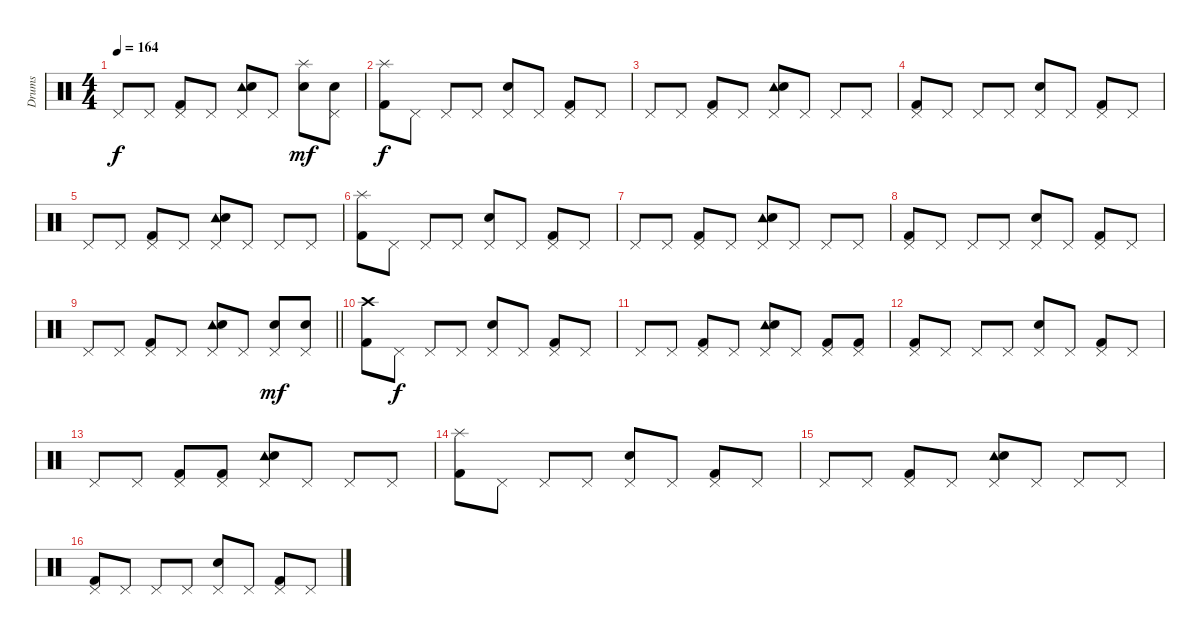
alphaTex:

\track ("Drums" "Drums") {instrument percussion}
\staff {score}
\articulation defaults
\ts (4 4)
\tempo 164
\clef neutral
\ks c "Pedal Hi-Hat (hit)".8{dy f} "Pedal Hi-Hat (hit)".8
("Pedal Hi-Hat (hit)" "Kick (hit) 2").8 "Pedal Hi-Hat (hit)".8 ("Tambourine (hit)" "Pedal Hi-Hat (hit)" "Snare (hit) 2").8 "Pedal Hi-Hat (hit)".8 ("Splash (hit)" "Snare (hit) 2").8{dy mf} ("Pedal Hi-Hat (hit)" "Snare (hit) 2").8 |
("Splash (hit)" "Kick (hit) 2").8{dy f} "Pedal Hi-Hat (hit)".8 "Pedal Hi-Hat (hit)".8 "Pedal Hi-Hat (hit)".8 ("Pedal Hi-Hat (hit)" "Snare (hit) 2").8 "Pedal Hi-Hat (hit)".8 ("Pedal Hi-Hat (hit)" "Kick (hit) 2").8 "Pedal Hi-Hat (hit)".8 |
"Pedal Hi-Hat (hit)".8 "Pedal Hi-Hat (hit)".8 ("Pedal Hi-Hat (hit)" "Kick (hit) 2").8 "Pedal Hi-Hat (hit)".8 ("Tambourine (hit)" "Pedal Hi-Hat (hit)" "Snare (hit) 2").8 "Pedal Hi-Hat (hit)".8 "Pedal Hi-Hat (hit)".8 "Pedal Hi-Hat (hit)".8 |
("Pedal Hi-Hat (hit)" "Kick (hit) 2").8 "Pedal Hi-Hat (hit)".8 "Pedal Hi-Hat (hit)".8 "Pedal Hi-Hat (hit)".8 ("Pedal Hi-Hat (hit)" "Snare (hit) 2").8 "Pedal Hi-Hat (hit)".8 ("Pedal Hi-Hat (hit)" "Kick (hit) 2").8 "Pedal Hi-Hat (hit)".8 |
"Pedal Hi-Hat (hit)".8 "Pedal Hi-Hat (hit)".8 ("Pedal Hi-Hat (hit)" "Kick (hit) 2").8 "Pedal Hi-Hat (hit)".8 ("Tambourine (hit)" "Pedal Hi-Hat (hit)" "Snare (hit) 2").8 "Pedal Hi-Hat (hit)".8 "Pedal Hi-Hat (hit)".8 "Pedal Hi-Hat (hit)".8 |
("Splash (hit)" "Kick (hit) 2").8 "Pedal Hi-Hat (hit)".8 "Pedal Hi-Hat (hit)".8 "Pedal Hi-Hat (hit)".8 ("Pedal Hi-Hat (hit)" "Snare (hit) 2").8 "Pedal Hi-Hat (hit)".8 ("Pedal Hi-Hat (hit)" "Kick (hit) 2").8 "Pedal Hi-Hat (hit)".8 |
"Pedal Hi-Hat (hit)".8 "Pedal Hi-Hat (hit)".8 ("Pedal Hi-Hat (hit)" "Kick (hit) 2").8 "Pedal Hi-Hat (hit)".8 ("Tambourine (hit)" "Pedal Hi-Hat (hit)" "Snare (hit) 2").8 "Pedal Hi-Hat (hit)".8 "Pedal Hi-Hat (hit)".8 "Pedal Hi-Hat (hit)".8 |
("Pedal Hi-Hat (hit)" "Kick (hit) 2").8 "Pedal Hi-Hat (hit)".8 "Pedal Hi-Hat (hit)".8 "Pedal Hi-Hat (hit)".8 ("Pedal Hi-Hat (hit)" "Snare (hit) 2").8 "Pedal Hi-Hat (hit)".8 ("Pedal Hi-Hat (hit)" "Kick (hit) 2").8 "Pedal Hi-Hat (hit)".8 |
\barLineRight lightlight "Pedal Hi-Hat (hit)".8 "Pedal Hi-Hat (hit)".8
("Pedal Hi-Hat (hit)" "Kick (hit) 2").8 "Pedal Hi-Hat (hit)".8 ("Tambourine (hit)" "Pedal Hi-Hat (hit)" "Snare (hit) 2").8 "Pedal Hi-Hat (hit)".8 ("Pedal Hi-Hat (hit)" "Snare (hit) 2").8{dy mf} ("Pedal Hi-Hat (hit)" "Snare (hit) 2").8 |
("Crash high (hit)" "Kick (hit) 2").8 "Pedal Hi-Hat (hit)".8{dy f} "Pedal Hi-Hat (hit)".8 "Pedal Hi-Hat (hit)".8 ("Pedal Hi-Hat (hit)" "Snare (hit) 2").8 "Pedal Hi-Hat (hit)".8 ("Pedal Hi-Hat (hit)" "Kick (hit) 2").8 "Pedal Hi-Hat (hit)".8 |
"Pedal Hi-Hat (hit)".8 "Pedal Hi-Hat (hit)".8 ("Pedal Hi-Hat (hit)" "Kick (hit) 2").8 "Pedal Hi-Hat (hit)".8 ("Tambourine (hit)" "Pedal Hi-Hat (hit)" "Snare (hit) 2").8 "Pedal Hi-Hat (hit)".8 ("Pedal Hi-Hat (hit)" "Kick (hit) 2").8 ("Pedal Hi-Hat (hit)" "Kick (hit) 2").8 |
("Pedal Hi-Hat (hit)" "Kick (hit) 2").8 "Pedal Hi-Hat (hit)".8 "Pedal Hi-Hat (hit)".8 "Pedal Hi-Hat (hit)".8 ("Pedal Hi-Hat (hit)" "Snare (hit) 2").8 "Pedal Hi-Hat (hit)".8 ("Pedal Hi-Hat (hit)" "Kick (hit) 2").8 "Pedal Hi-Hat (hit)".8 |
"Pedal Hi-Hat (hit)".8 "Pedal Hi-Hat (hit)".8 ("Pedal Hi-Hat (hit)" "Kick (hit) 2").8 ("Pedal Hi-Hat (hit)" "Kick (hit) 2").8 ("Tambourine (hit)" "Pedal Hi-Hat (hit)" "Snare (hit) 2").8 "Pedal Hi-Hat (hit)".8 "Pedal Hi-Hat (hit)".8 "Pedal Hi-Hat (hit)".8 |
("Splash (hit)" "Kick (hit) 2").8 "Pedal Hi-Hat (hit)".8 "Pedal Hi-Hat (hit)".8 "Pedal Hi-Hat (hit)".8 ("Pedal Hi-Hat (hit)" "Snare (hit) 2").8 "Pedal Hi-Hat (hit)".8 ("Pedal Hi-Hat (hit)" "Kick (hit) 2").8 "Pedal Hi-Hat (hit)".8 |
"Pedal Hi-Hat (hit)".8 "Pedal Hi-Hat (hit)".8 ("Pedal Hi-Hat (hit)" "Kick (hit) 2").8 "Pedal Hi-Hat (hit)".8 ("Tambourine (hit)" "Pedal Hi-Hat (hit)" "Snare (hit) 2").8 "Pedal Hi-Hat (hit)".8 "Pedal Hi-Hat (hit)".8 "Pedal Hi-Hat (hit)".8 |
("Pedal Hi-Hat (hit)" "Kick (hit) 2").8 "Pedal Hi-Hat (hit)".8 "Pedal Hi-Hat (hit)".8 "Pedal Hi-Hat (hit)".8 ("Pedal Hi-Hat (hit)" "Snare (hit) 2").8 "Pedal Hi-Hat (hit)".8 ("Pedal Hi-Hat (hit)" "Kick (hit) 2").8 "Pedal Hi-Hat (hit)".8
